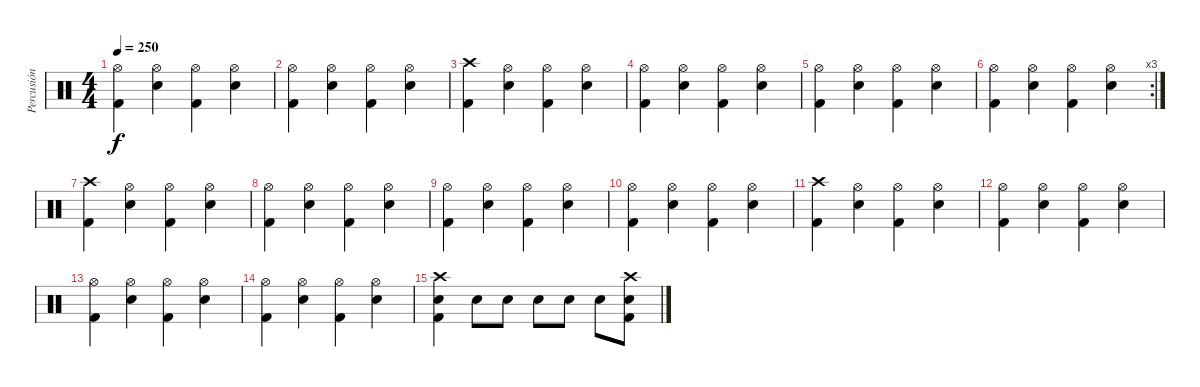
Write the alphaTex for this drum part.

\track ("Percusión" "Percusión") {instrument percussion}
\staff {score}
\articulation defaults
\ts (4 4)
\tempo 250
\clef neutral
\ks c
("Kick (hit) 2" "Hi-Hat (open)").4{dy f} ("Snare (hit) 2" "Hi-Hat (open)").4 ("Kick (hit) 2" "Hi-Hat (open)").4 ("Snare (hit) 2" "Hi-Hat (open)").4 |
("Kick (hit) 2" "Hi-Hat (open)").4 ("Snare (hit) 2" "Hi-Hat (open)").4 ("Kick (hit) 2" "Hi-Hat (open)").4 ("Snare (hit) 2" "Hi-Hat (open)").4 |
("Kick (hit) 2" "Crash high (hit)").4 ("Snare (hit) 2" "Hi-Hat (open)").4 ("Kick (hit) 2" "Hi-Hat (open)").4 ("Snare (hit) 2" "Hi-Hat (open)").4 |
("Kick (hit) 2" "Hi-Hat (open)").4 ("Snare (hit) 2" "Hi-Hat (open)").4 ("Kick (hit) 2" "Hi-Hat (open)").4 ("Snare (hit) 2" "Hi-Hat (open)").4 |
("Kick (hit) 2" "Hi-Hat (open)").4 ("Snare (hit) 2" "Hi-Hat (open)").4 ("Kick (hit) 2" "Hi-Hat (open)").4 ("Snare (hit) 2" "Hi-Hat (open)").4 |
\rc 3
("Kick (hit) 2" "Hi-Hat (open)").4 ("Snare (hit) 2" "Hi-Hat (open)").4 ("Kick (hit) 2" "Hi-Hat (open)").4 ("Snare (hit) 2" "Hi-Hat (open)").4 |
("Kick (hit) 2" "Crash high (hit)").4 ("Snare (hit) 2" "Hi-Hat (open)").4 ("Kick (hit) 2" "Hi-Hat (open)").4 ("Snare (hit) 2" "Hi-Hat (open)").4 |
("Kick (hit) 2" "Hi-Hat (open)").4 ("Snare (hit) 2" "Hi-Hat (open)").4 ("Kick (hit) 2" "Hi-Hat (open)").4 ("Snare (hit) 2" "Hi-Hat (open)").4 |
("Kick (hit) 2" "Hi-Hat (open)").4 ("Snare (hit) 2" "Hi-Hat (open)").4 ("Kick (hit) 2" "Hi-Hat (open)").4 ("Snare (hit) 2" "Hi-Hat (open)").4 |
("Kick (hit) 2" "Hi-Hat (open)").4 ("Snare (hit) 2" "Hi-Hat (open)").4 ("Kick (hit) 2" "Hi-Hat (open)").4 ("Snare (hit) 2" "Hi-Hat (open)").4 |
("Kick (hit) 2" "Crash high (hit)").4 ("Snare (hit) 2" "Hi-Hat (open)").4 ("Kick (hit) 2" "Hi-Hat (open)").4 ("Snare (hit) 2" "Hi-Hat (open)").4 |
("Kick (hit) 2" "Hi-Hat (open)").4 ("Snare (hit) 2" "Hi-Hat (open)").4 ("Kick (hit) 2" "Hi-Hat (open)").4 ("Snare (hit) 2" "Hi-Hat (open)").4 |
("Kick (hit) 2" "Hi-Hat (open)").4 ("Snare (hit) 2" "Hi-Hat (open)").4 ("Kick (hit) 2" "Hi-Hat (open)").4 ("Snare (hit) 2" "Hi-Hat (open)").4 |
("Kick (hit) 2" "Hi-Hat (open)").4 ("Snare (hit) 2" "Hi-Hat (open)").4 ("Kick (hit) 2" "Hi-Hat (open)").4 ("Snare (hit) 2" "Hi-Hat (open)").4 |
("Kick (hit) 2" "Snare (hit) 2" "Crash high (hit)").4 "Snare (hit) 2".8 "Snare (hit) 2".8 "Snare (hit) 2".8 "Snare (hit) 2".8 "Snare (hit) 2".8 ("Kick (hit) 2" "Snare (hit) 2" "Crash high (hit)").8
